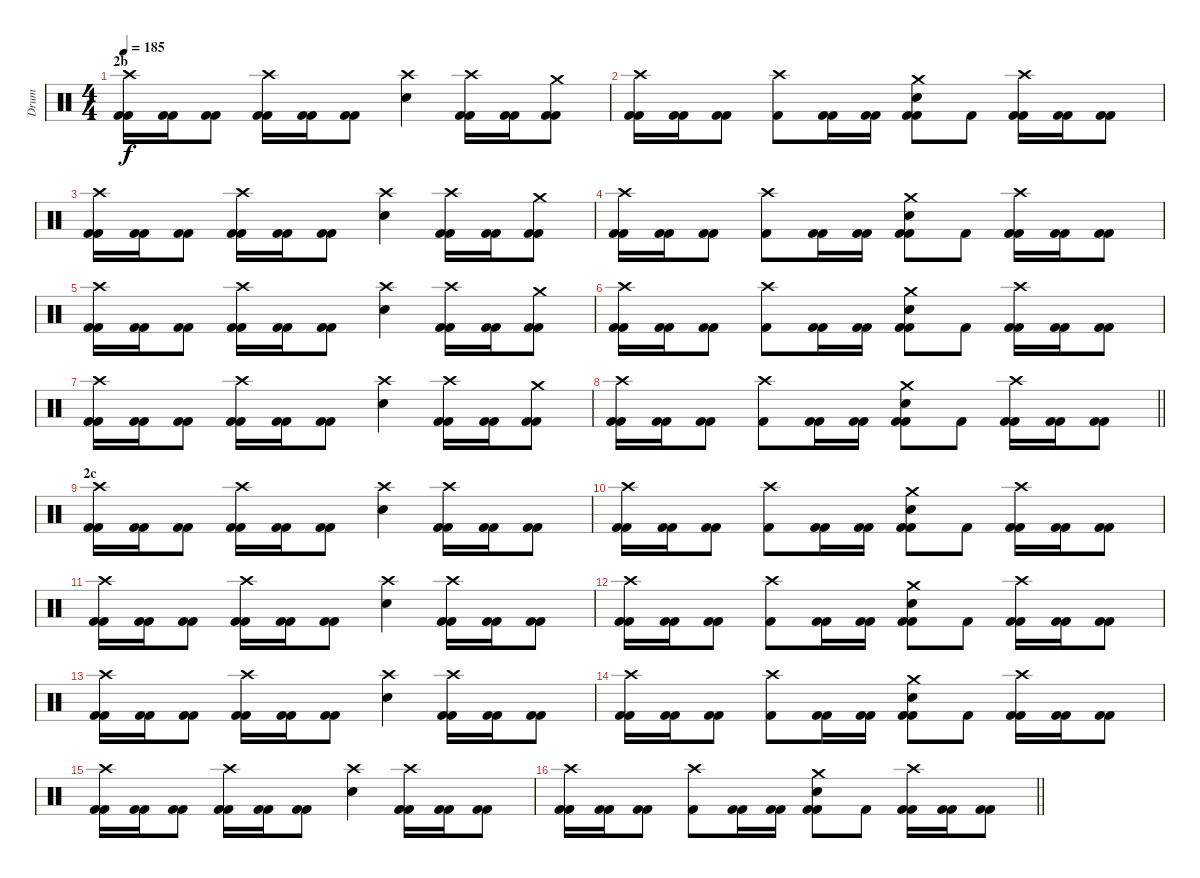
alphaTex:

\track ("Drum" "Drum") {instrument percussion}
\staff {score}
\articulation defaults
\ts (4 4)
\section ("" "2b")
\tempo 185
\clef neutral
\ks c
("Crash high (hit)" "Kick (hit) 2" "Kick (hit) 2").16{dy f} ("Kick (hit) 2" "Kick (hit) 2").16 ("Kick (hit) 2" "Kick (hit) 2").8 ("Crash high (hit)" "Kick (hit) 2" "Kick (hit) 2").16 ("Kick (hit) 2" "Kick (hit) 2").16 ("Kick (hit) 2" "Kick (hit) 2").8 ("Crash high (hit)" "Electric Snare (hit)").4 ("Crash high (hit)" "Kick (hit) 2" "Kick (hit) 2").16 ("Kick (hit) 2" "Kick (hit) 2").16 ("Crash medium (hit)" "Kick (hit) 2" "Kick (hit) 2").8 |
("Crash high (hit)" "Kick (hit) 2" "Kick (hit) 2").16 ("Kick (hit) 2" "Kick (hit) 2").16 ("Kick (hit) 2" "Kick (hit) 2").8 ("Crash high (hit)" "Kick (hit) 2").8 ("Kick (hit) 2" "Kick (hit) 2").16 ("Kick (hit) 2" "Kick (hit) 2").16 ("Crash medium (hit)" "Electric Snare (hit)" "Kick (hit) 2" "Kick (hit) 2").8 "Kick (hit) 2".8 ("Crash high (hit)" "Kick (hit) 2" "Kick (hit) 2").16 ("Kick (hit) 2" "Kick (hit) 2").16 ("Kick (hit) 2" "Kick (hit) 2").8 |
("Crash high (hit)" "Kick (hit) 2" "Kick (hit) 2").16 ("Kick (hit) 2" "Kick (hit) 2").16 ("Kick (hit) 2" "Kick (hit) 2").8 ("Crash high (hit)" "Kick (hit) 2" "Kick (hit) 2").16 ("Kick (hit) 2" "Kick (hit) 2").16 ("Kick (hit) 2" "Kick (hit) 2").8 ("Crash high (hit)" "Electric Snare (hit)").4 ("Crash high (hit)" "Kick (hit) 2" "Kick (hit) 2").16 ("Kick (hit) 2" "Kick (hit) 2").16 ("Crash medium (hit)" "Kick (hit) 2" "Kick (hit) 2").8 |
("Crash high (hit)" "Kick (hit) 2" "Kick (hit) 2").16 ("Kick (hit) 2" "Kick (hit) 2").16 ("Kick (hit) 2" "Kick (hit) 2").8 ("Crash high (hit)" "Kick (hit) 2").8 ("Kick (hit) 2" "Kick (hit) 2").16 ("Kick (hit) 2" "Kick (hit) 2").16 ("Crash medium (hit)" "Electric Snare (hit)" "Kick (hit) 2" "Kick (hit) 2").8 "Kick (hit) 2".8 ("Crash high (hit)" "Kick (hit) 2" "Kick (hit) 2").16 ("Kick (hit) 2" "Kick (hit) 2").16 ("Kick (hit) 2" "Kick (hit) 2").8 |
("Crash high (hit)" "Kick (hit) 2" "Kick (hit) 2").16 ("Kick (hit) 2" "Kick (hit) 2").16 ("Kick (hit) 2" "Kick (hit) 2").8 ("Crash high (hit)" "Kick (hit) 2" "Kick (hit) 2").16 ("Kick (hit) 2" "Kick (hit) 2").16 ("Kick (hit) 2" "Kick (hit) 2").8 ("Crash high (hit)" "Electric Snare (hit)").4 ("Crash high (hit)" "Kick (hit) 2" "Kick (hit) 2").16 ("Kick (hit) 2" "Kick (hit) 2").16 ("Crash medium (hit)" "Kick (hit) 2" "Kick (hit) 2").8 |
("Crash high (hit)" "Kick (hit) 2" "Kick (hit) 2").16 ("Kick (hit) 2" "Kick (hit) 2").16 ("Kick (hit) 2" "Kick (hit) 2").8 ("Crash high (hit)" "Kick (hit) 2").8 ("Kick (hit) 2" "Kick (hit) 2").16 ("Kick (hit) 2" "Kick (hit) 2").16 ("Crash medium (hit)" "Electric Snare (hit)" "Kick (hit) 2" "Kick (hit) 2").8 "Kick (hit) 2".8 ("Crash high (hit)" "Kick (hit) 2" "Kick (hit) 2").16 ("Kick (hit) 2" "Kick (hit) 2").16 ("Kick (hit) 2" "Kick (hit) 2").8 |
("Crash high (hit)" "Kick (hit) 2" "Kick (hit) 2").16 ("Kick (hit) 2" "Kick (hit) 2").16 ("Kick (hit) 2" "Kick (hit) 2").8 ("Crash high (hit)" "Kick (hit) 2" "Kick (hit) 2").16 ("Kick (hit) 2" "Kick (hit) 2").16 ("Kick (hit) 2" "Kick (hit) 2").8 ("Crash high (hit)" "Electric Snare (hit)").4 ("Crash high (hit)" "Kick (hit) 2" "Kick (hit) 2").16 ("Kick (hit) 2" "Kick (hit) 2").16 ("Crash medium (hit)" "Kick (hit) 2" "Kick (hit) 2").8 |
\barLineRight lightlight
("Crash high (hit)" "Kick (hit) 2" "Kick (hit) 2").16 ("Kick (hit) 2" "Kick (hit) 2").16 ("Kick (hit) 2" "Kick (hit) 2").8 ("Crash high (hit)" "Kick (hit) 2").8 ("Kick (hit) 2" "Kick (hit) 2").16 ("Kick (hit) 2" "Kick (hit) 2").16 ("Crash medium (hit)" "Electric Snare (hit)" "Kick (hit) 2" "Kick (hit) 2").8 "Kick (hit) 2".8 ("Crash high (hit)" "Kick (hit) 2" "Kick (hit) 2").16 ("Kick (hit) 2" "Kick (hit) 2").16 ("Kick (hit) 2" "Kick (hit) 2").8 |
\section ("" "2c")
("Crash high (hit)" "Kick (hit) 2" "Kick (hit) 2").16 ("Kick (hit) 2" "Kick (hit) 2").16 ("Kick (hit) 2" "Kick (hit) 2").8 ("Crash high (hit)" "Kick (hit) 2" "Kick (hit) 2").16 ("Kick (hit) 2" "Kick (hit) 2").16 ("Kick (hit) 2" "Kick (hit) 2").8 ("Crash high (hit)" "Electric Snare (hit)").4 ("Crash high (hit)" "Kick (hit) 2" "Kick (hit) 2").16 ("Kick (hit) 2" "Kick (hit) 2").16 ("Kick (hit) 2" "Kick (hit) 2").8 |
("Crash high (hit)" "Kick (hit) 2" "Kick (hit) 2").16 ("Kick (hit) 2" "Kick (hit) 2").16 ("Kick (hit) 2" "Kick (hit) 2").8 ("Crash high (hit)" "Kick (hit) 2").8 ("Kick (hit) 2" "Kick (hit) 2").16 ("Kick (hit) 2" "Kick (hit) 2").16 ("Crash medium (hit)" "Electric Snare (hit)" "Kick (hit) 2" "Kick (hit) 2").8 "Kick (hit) 2".8 ("Crash high (hit)" "Kick (hit) 2" "Kick (hit) 2").16 ("Kick (hit) 2" "Kick (hit) 2").16 ("Kick (hit) 2" "Kick (hit) 2").8 |
("Crash high (hit)" "Kick (hit) 2" "Kick (hit) 2").16 ("Kick (hit) 2" "Kick (hit) 2").16 ("Kick (hit) 2" "Kick (hit) 2").8 ("Crash high (hit)" "Kick (hit) 2" "Kick (hit) 2").16 ("Kick (hit) 2" "Kick (hit) 2").16 ("Kick (hit) 2" "Kick (hit) 2").8 ("Crash high (hit)" "Electric Snare (hit)").4 ("Crash high (hit)" "Kick (hit) 2" "Kick (hit) 2").16 ("Kick (hit) 2" "Kick (hit) 2").16 ("Kick (hit) 2" "Kick (hit) 2").8 |
("Crash high (hit)" "Kick (hit) 2" "Kick (hit) 2").16 ("Kick (hit) 2" "Kick (hit) 2").16 ("Kick (hit) 2" "Kick (hit) 2").8 ("Crash high (hit)" "Kick (hit) 2").8 ("Kick (hit) 2" "Kick (hit) 2").16 ("Kick (hit) 2" "Kick (hit) 2").16 ("Crash medium (hit)" "Electric Snare (hit)" "Kick (hit) 2" "Kick (hit) 2").8 "Kick (hit) 2".8 ("Crash high (hit)" "Kick (hit) 2" "Kick (hit) 2").16 ("Kick (hit) 2" "Kick (hit) 2").16 ("Kick (hit) 2" "Kick (hit) 2").8 |
("Crash high (hit)" "Kick (hit) 2" "Kick (hit) 2").16 ("Kick (hit) 2" "Kick (hit) 2").16 ("Kick (hit) 2" "Kick (hit) 2").8 ("Crash high (hit)" "Kick (hit) 2" "Kick (hit) 2").16 ("Kick (hit) 2" "Kick (hit) 2").16 ("Kick (hit) 2" "Kick (hit) 2").8 ("Crash high (hit)" "Electric Snare (hit)").4 ("Crash high (hit)" "Kick (hit) 2" "Kick (hit) 2").16 ("Kick (hit) 2" "Kick (hit) 2").16 ("Kick (hit) 2" "Kick (hit) 2").8 |
("Crash high (hit)" "Kick (hit) 2" "Kick (hit) 2").16 ("Kick (hit) 2" "Kick (hit) 2").16 ("Kick (hit) 2" "Kick (hit) 2").8 ("Crash high (hit)" "Kick (hit) 2").8 ("Kick (hit) 2" "Kick (hit) 2").16 ("Kick (hit) 2" "Kick (hit) 2").16 ("Crash medium (hit)" "Electric Snare (hit)" "Kick (hit) 2" "Kick (hit) 2").8 "Kick (hit) 2".8 ("Crash high (hit)" "Kick (hit) 2" "Kick (hit) 2").16 ("Kick (hit) 2" "Kick (hit) 2").16 ("Kick (hit) 2" "Kick (hit) 2").8 |
("Crash high (hit)" "Kick (hit) 2" "Kick (hit) 2").16 ("Kick (hit) 2" "Kick (hit) 2").16 ("Kick (hit) 2" "Kick (hit) 2").8 ("Crash high (hit)" "Kick (hit) 2" "Kick (hit) 2").16 ("Kick (hit) 2" "Kick (hit) 2").16 ("Kick (hit) 2" "Kick (hit) 2").8 ("Crash high (hit)" "Electric Snare (hit)").4 ("Crash high (hit)" "Kick (hit) 2" "Kick (hit) 2").16 ("Kick (hit) 2" "Kick (hit) 2").16 ("Kick (hit) 2" "Kick (hit) 2").8 |
\barLineRight lightlight
("Crash high (hit)" "Kick (hit) 2" "Kick (hit) 2").16 ("Kick (hit) 2" "Kick (hit) 2").16 ("Kick (hit) 2" "Kick (hit) 2").8 ("Crash high (hit)" "Kick (hit) 2").8 ("Kick (hit) 2" "Kick (hit) 2").16 ("Kick (hit) 2" "Kick (hit) 2").16 ("Crash medium (hit)" "Electric Snare (hit)" "Kick (hit) 2" "Kick (hit) 2").8 "Kick (hit) 2".8 ("Crash high (hit)" "Kick (hit) 2" "Kick (hit) 2").16 ("Kick (hit) 2" "Kick (hit) 2").16 ("Kick (hit) 2" "Kick (hit) 2").8
